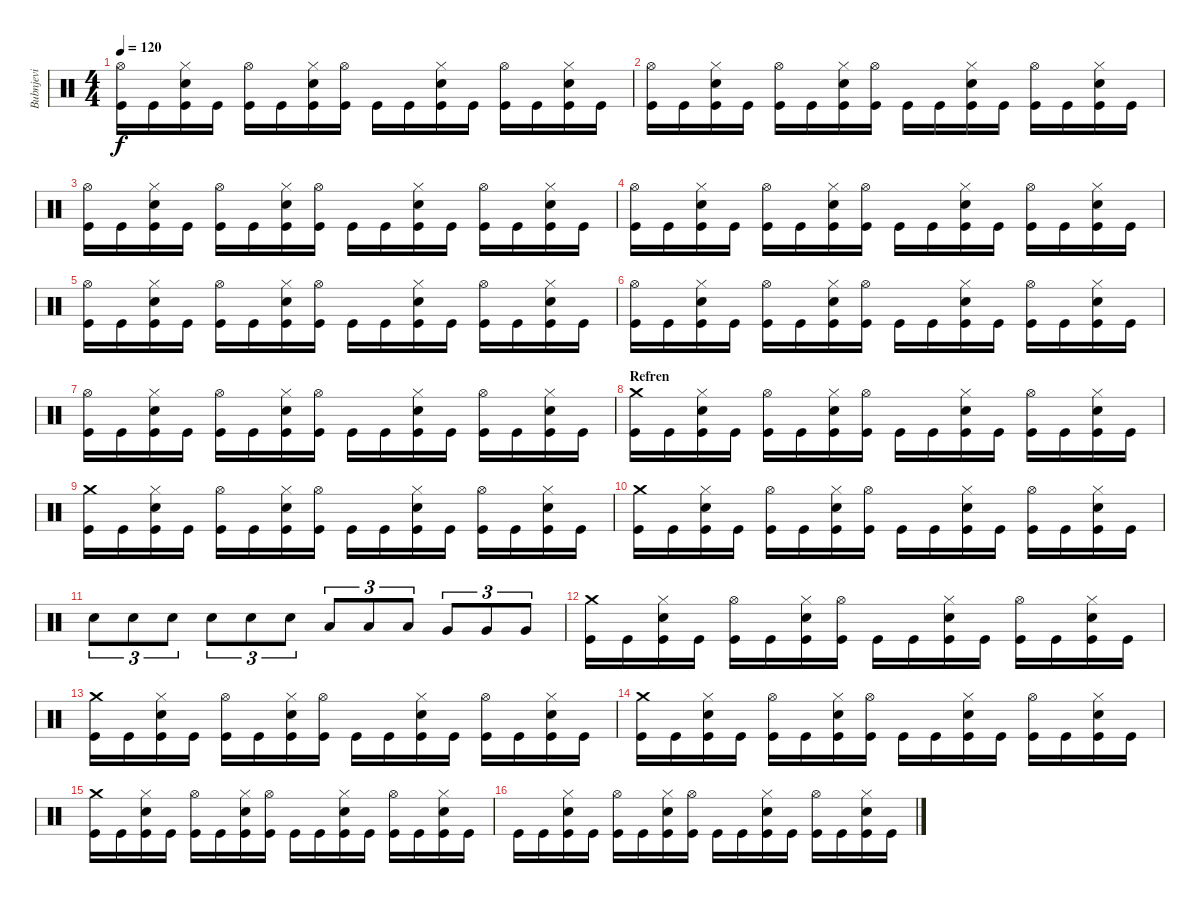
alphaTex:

\track ("Bubnjevi" "Bubnjevi") {instrument percussion}
\staff {score}
\articulation defaults
\ts (4 4)
\tempo 120
\clef neutral
\ks c
("Hi-Hat (open)" "Kick (hit)").16{dy f} "Kick (hit)".16 ("Electric Snare (hit)" "Hi-Hat (closed)" "Kick (hit)").16 "Kick (hit)".16 ("Hi-Hat (open)" "Kick (hit)").16 "Kick (hit)".16 ("Electric Snare (hit)" "Hi-Hat (closed)" "Kick (hit)").16 ("Hi-Hat (open)" "Kick (hit)").16 "Kick (hit)".16 "Kick (hit)".16 ("Electric Snare (hit)" "Hi-Hat (closed)" "Kick (hit)").16 "Kick (hit)".16 ("Hi-Hat (open)" "Kick (hit)").16 "Kick (hit)".16 ("Electric Snare (hit)" "Hi-Hat (closed)" "Kick (hit)").16 "Kick (hit)".16 |
("Hi-Hat (open)" "Kick (hit)").16 "Kick (hit)".16 ("Electric Snare (hit)" "Hi-Hat (closed)" "Kick (hit)").16 "Kick (hit)".16 ("Hi-Hat (open)" "Kick (hit)").16 "Kick (hit)".16 ("Electric Snare (hit)" "Hi-Hat (closed)" "Kick (hit)").16 ("Hi-Hat (open)" "Kick (hit)").16 "Kick (hit)".16 "Kick (hit)".16 ("Electric Snare (hit)" "Hi-Hat (closed)" "Kick (hit)").16 "Kick (hit)".16 ("Hi-Hat (open)" "Kick (hit)").16 "Kick (hit)".16 ("Electric Snare (hit)" "Hi-Hat (closed)" "Kick (hit)").16 "Kick (hit)".16 |
("Hi-Hat (open)" "Kick (hit)").16 "Kick (hit)".16 ("Electric Snare (hit)" "Hi-Hat (closed)" "Kick (hit)").16 "Kick (hit)".16 ("Hi-Hat (open)" "Kick (hit)").16 "Kick (hit)".16 ("Electric Snare (hit)" "Hi-Hat (closed)" "Kick (hit)").16 ("Hi-Hat (open)" "Kick (hit)").16 "Kick (hit)".16 "Kick (hit)".16 ("Electric Snare (hit)" "Hi-Hat (closed)" "Kick (hit)").16 "Kick (hit)".16 ("Hi-Hat (open)" "Kick (hit)").16 "Kick (hit)".16 ("Electric Snare (hit)" "Hi-Hat (closed)" "Kick (hit)").16 "Kick (hit)".16 |
("Hi-Hat (open)" "Kick (hit)").16 "Kick (hit)".16 ("Electric Snare (hit)" "Hi-Hat (closed)" "Kick (hit)").16 "Kick (hit)".16 ("Hi-Hat (open)" "Kick (hit)").16 "Kick (hit)".16 ("Electric Snare (hit)" "Hi-Hat (closed)" "Kick (hit)").16 ("Hi-Hat (open)" "Kick (hit)").16 "Kick (hit)".16 "Kick (hit)".16 ("Electric Snare (hit)" "Hi-Hat (closed)" "Kick (hit)").16 "Kick (hit)".16 ("Hi-Hat (open)" "Kick (hit)").16 "Kick (hit)".16 ("Electric Snare (hit)" "Hi-Hat (closed)" "Kick (hit)").16 "Kick (hit)".16 |
("Hi-Hat (open)" "Kick (hit)").16 "Kick (hit)".16 ("Electric Snare (hit)" "Hi-Hat (closed)" "Kick (hit)").16 "Kick (hit)".16 ("Hi-Hat (open)" "Kick (hit)").16 "Kick (hit)".16 ("Electric Snare (hit)" "Hi-Hat (closed)" "Kick (hit)").16 ("Hi-Hat (open)" "Kick (hit)").16 "Kick (hit)".16 "Kick (hit)".16 ("Electric Snare (hit)" "Hi-Hat (closed)" "Kick (hit)").16 "Kick (hit)".16 ("Hi-Hat (open)" "Kick (hit)").16 "Kick (hit)".16 ("Electric Snare (hit)" "Hi-Hat (closed)" "Kick (hit)").16 "Kick (hit)".16 |
("Hi-Hat (open)" "Kick (hit)").16 "Kick (hit)".16 ("Electric Snare (hit)" "Hi-Hat (closed)" "Kick (hit)").16 "Kick (hit)".16 ("Hi-Hat (open)" "Kick (hit)").16 "Kick (hit)".16 ("Electric Snare (hit)" "Hi-Hat (closed)" "Kick (hit)").16 ("Hi-Hat (open)" "Kick (hit)").16 "Kick (hit)".16 "Kick (hit)".16 ("Electric Snare (hit)" "Hi-Hat (closed)" "Kick (hit)").16 "Kick (hit)".16 ("Hi-Hat (open)" "Kick (hit)").16 "Kick (hit)".16 ("Electric Snare (hit)" "Hi-Hat (closed)" "Kick (hit)").16 "Kick (hit)".16 |
("Hi-Hat (open)" "Kick (hit)").16 "Kick (hit)".16 ("Electric Snare (hit)" "Hi-Hat (closed)" "Kick (hit)").16 "Kick (hit)".16 ("Hi-Hat (open)" "Kick (hit)").16 "Kick (hit)".16 ("Electric Snare (hit)" "Hi-Hat (closed)" "Kick (hit)").16 ("Hi-Hat (open)" "Kick (hit)").16 "Kick (hit)".16 "Kick (hit)".16 ("Electric Snare (hit)" "Hi-Hat (closed)" "Kick (hit)").16 "Kick (hit)".16 ("Hi-Hat (open)" "Kick (hit)").16 "Kick (hit)".16 ("Electric Snare (hit)" "Hi-Hat (closed)" "Kick (hit)").16 "Kick (hit)".16 |
\section ("" "Refren")
("Crash medium (hit)" "Kick (hit)").16 "Kick (hit)".16 ("Electric Snare (hit)" "Hi-Hat (closed)" "Kick (hit)").16 "Kick (hit)".16 ("Hi-Hat (open)" "Kick (hit)").16 "Kick (hit)".16 ("Electric Snare (hit)" "Hi-Hat (closed)" "Kick (hit)").16 ("Hi-Hat (open)" "Kick (hit)").16 "Kick (hit)".16 "Kick (hit)".16 ("Electric Snare (hit)" "Hi-Hat (closed)" "Kick (hit)").16 "Kick (hit)".16 ("Hi-Hat (open)" "Kick (hit)").16 "Kick (hit)".16 ("Electric Snare (hit)" "Hi-Hat (closed)" "Kick (hit)").16 "Kick (hit)".16 |
("Crash medium (hit)" "Kick (hit)").16 "Kick (hit)".16 ("Electric Snare (hit)" "Hi-Hat (closed)" "Kick (hit)").16 "Kick (hit)".16 ("Hi-Hat (open)" "Kick (hit)").16 "Kick (hit)".16 ("Electric Snare (hit)" "Hi-Hat (closed)" "Kick (hit)").16 ("Hi-Hat (open)" "Kick (hit)").16 "Kick (hit)".16 "Kick (hit)".16 ("Electric Snare (hit)" "Hi-Hat (closed)" "Kick (hit)").16 "Kick (hit)".16 ("Hi-Hat (open)" "Kick (hit)").16 "Kick (hit)".16 ("Electric Snare (hit)" "Hi-Hat (closed)" "Kick (hit)").16 "Kick (hit)".16 |
("Crash medium (hit)" "Kick (hit)").16 "Kick (hit)".16 ("Electric Snare (hit)" "Hi-Hat (closed)" "Kick (hit)").16 "Kick (hit)".16 ("Hi-Hat (open)" "Kick (hit)").16 "Kick (hit)".16 ("Electric Snare (hit)" "Hi-Hat (closed)" "Kick (hit)").16 ("Hi-Hat (open)" "Kick (hit)").16 "Kick (hit)".16 "Kick (hit)".16 ("Electric Snare (hit)" "Hi-Hat (closed)" "Kick (hit)").16 "Kick (hit)".16 ("Hi-Hat (open)" "Kick (hit)").16 "Kick (hit)".16 ("Electric Snare (hit)" "Hi-Hat (closed)" "Kick (hit)").16 "Kick (hit)".16 |
"Electric Snare (hit)".8{tu (3 2)} "Electric Snare (hit)".8{tu (3 2)} "Electric Snare (hit)".8{tu (3 2)} "Electric Snare (hit)".8{tu (3 2)} "Electric Snare (hit)".8{tu (3 2)} "Electric Snare (hit)".8{tu (3 2)} "Low Tom (hit)".8{tu (3 2)} "Low Tom (hit)".8{tu (3 2)} "Low Tom (hit)".8{tu (3 2)} "Very Low Tom (hit)".8{tu (3 2)} "Very Low Tom (hit)".8{tu (3 2)} "Very Low Tom (hit)".8{tu (3 2)} |
("Crash medium (hit)" "Kick (hit)").16 "Kick (hit)".16 ("Electric Snare (hit)" "Hi-Hat (closed)" "Kick (hit)").16 "Kick (hit)".16 ("Hi-Hat (open)" "Kick (hit)").16 "Kick (hit)".16 ("Electric Snare (hit)" "Hi-Hat (closed)" "Kick (hit)").16 ("Hi-Hat (open)" "Kick (hit)").16 "Kick (hit)".16 "Kick (hit)".16 ("Electric Snare (hit)" "Hi-Hat (closed)" "Kick (hit)").16 "Kick (hit)".16 ("Hi-Hat (open)" "Kick (hit)").16 "Kick (hit)".16 ("Electric Snare (hit)" "Hi-Hat (closed)" "Kick (hit)").16 "Kick (hit)".16 |
("Crash medium (hit)" "Kick (hit)").16 "Kick (hit)".16 ("Electric Snare (hit)" "Hi-Hat (closed)" "Kick (hit)").16 "Kick (hit)".16 ("Hi-Hat (open)" "Kick (hit)").16 "Kick (hit)".16 ("Electric Snare (hit)" "Hi-Hat (closed)" "Kick (hit)").16 ("Hi-Hat (open)" "Kick (hit)").16 "Kick (hit)".16 "Kick (hit)".16 ("Electric Snare (hit)" "Hi-Hat (closed)" "Kick (hit)").16 "Kick (hit)".16 ("Hi-Hat (open)" "Kick (hit)").16 "Kick (hit)".16 ("Electric Snare (hit)" "Hi-Hat (closed)" "Kick (hit)").16 "Kick (hit)".16 |
("Crash medium (hit)" "Kick (hit)").16 "Kick (hit)".16 ("Electric Snare (hit)" "Hi-Hat (closed)" "Kick (hit)").16 "Kick (hit)".16 ("Hi-Hat (open)" "Kick (hit)").16 "Kick (hit)".16 ("Electric Snare (hit)" "Hi-Hat (closed)" "Kick (hit)").16 ("Hi-Hat (open)" "Kick (hit)").16 "Kick (hit)".16 "Kick (hit)".16 ("Electric Snare (hit)" "Hi-Hat (closed)" "Kick (hit)").16 "Kick (hit)".16 ("Hi-Hat (open)" "Kick (hit)").16 "Kick (hit)".16 ("Electric Snare (hit)" "Hi-Hat (closed)" "Kick (hit)").16 "Kick (hit)".16 |
("Crash medium (hit)" "Kick (hit)").16 "Kick (hit)".16 ("Electric Snare (hit)" "Hi-Hat (closed)" "Kick (hit)").16 "Kick (hit)".16 ("Hi-Hat (open)" "Kick (hit)").16 "Kick (hit)".16 ("Electric Snare (hit)" "Hi-Hat (closed)" "Kick (hit)").16 ("Hi-Hat (open)" "Kick (hit)").16 "Kick (hit)".16 "Kick (hit)".16 ("Electric Snare (hit)" "Hi-Hat (closed)" "Kick (hit)").16 "Kick (hit)".16 ("Hi-Hat (open)" "Kick (hit)").16 "Kick (hit)".16 ("Electric Snare (hit)" "Hi-Hat (closed)" "Kick (hit)").16 "Kick (hit)".16 |
"Kick (hit)".16 "Kick (hit)".16 ("Electric Snare (hit)" "Hi-Hat (closed)" "Kick (hit)").16 "Kick (hit)".16 ("Hi-Hat (open)" "Kick (hit)").16 "Kick (hit)".16 ("Electric Snare (hit)" "Hi-Hat (closed)" "Kick (hit)").16 ("Hi-Hat (open)" "Kick (hit)").16 "Kick (hit)".16 "Kick (hit)".16 ("Electric Snare (hit)" "Hi-Hat (closed)" "Kick (hit)").16 "Kick (hit)".16 ("Hi-Hat (open)" "Kick (hit)").16 "Kick (hit)".16 ("Electric Snare (hit)" "Hi-Hat (closed)" "Kick (hit)").16 "Kick (hit)".16
